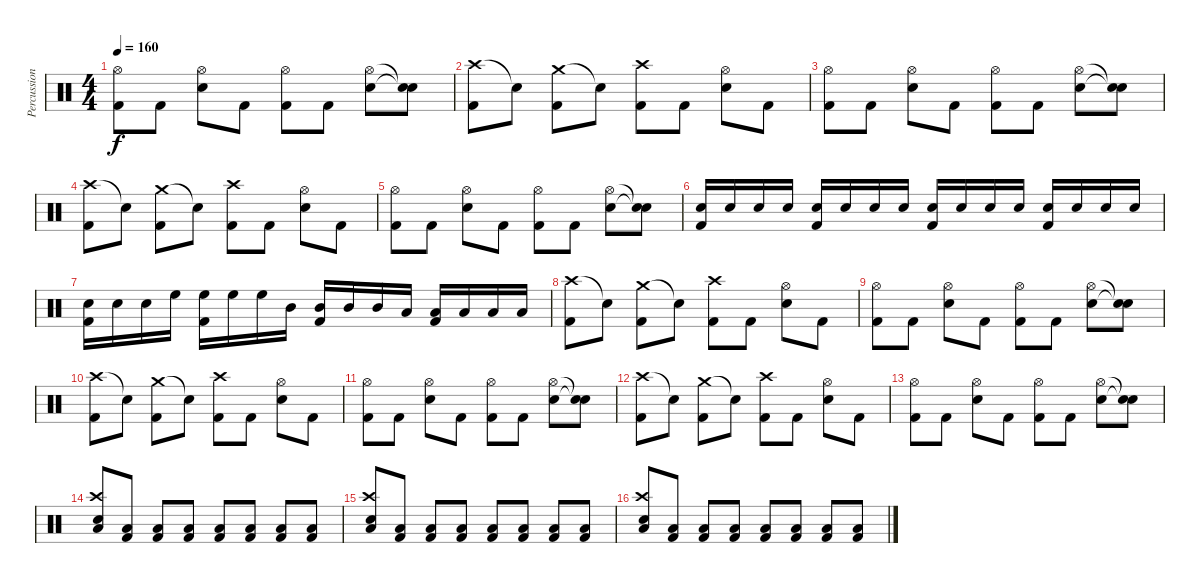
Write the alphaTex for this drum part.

\track ("Percussion" "Percussion") {instrument percussion}
\staff {score}
\articulation defaults
\ts (4 4)
\tempo 160
\clef neutral
\ks c
("Hi-Hat (open)" "Kick (hit) 2").8{dy f} "Kick (hit) 2".8 ("Hi-Hat (open)" "Snare (hit) 2").8 "Kick (hit) 2".8 ("Hi-Hat (open)" "Kick (hit) 2").8 "Kick (hit) 2".8 ("Hi-Hat (open)" "Snare (hit) 2").8 ("Snare (hit)"{t} "Snare (hit)"{t}).8 |
("Crash high (hit)" "Kick (hit) 2").8 "Snare (hit)"{t}.8 ("Crash medium (hit)" "Kick (hit) 2").8 "Snare (hit)"{t}.8 ("Crash high (hit)" "Kick (hit) 2").8 "Kick (hit) 2".8 ("Hi-Hat (open)" "Snare (hit) 2").8 "Kick (hit) 2".8 |
("Hi-Hat (open)" "Kick (hit) 2").8 "Kick (hit) 2".8 ("Hi-Hat (open)" "Snare (hit) 2").8 "Kick (hit) 2".8 ("Hi-Hat (open)" "Kick (hit) 2").8 "Kick (hit) 2".8 ("Hi-Hat (open)" "Snare (hit) 2").8 ("Snare (hit)"{t} "Snare (hit)"{t}).8 |
("Crash high (hit)" "Kick (hit) 2").8 "Snare (hit)"{t}.8 ("Crash medium (hit)" "Kick (hit) 2").8 "Snare (hit)"{t}.8 ("Crash high (hit)" "Kick (hit) 2").8 "Kick (hit) 2".8 ("Hi-Hat (open)" "Snare (hit) 2").8 "Kick (hit) 2".8 |
("Hi-Hat (open)" "Kick (hit) 2").8 "Kick (hit) 2".8 ("Hi-Hat (open)" "Snare (hit) 2").8 "Kick (hit) 2".8 ("Hi-Hat (open)" "Kick (hit) 2").8 "Kick (hit) 2".8 ("Hi-Hat (open)" "Snare (hit) 2").8 ("Snare (hit)"{t} "Snare (hit)"{t}).8 |
("Snare (hit) 2" "Kick (hit) 2").16 "Snare (hit) 2".16 "Snare (hit) 2".16 "Snare (hit) 2".16 ("Snare (hit) 2" "Kick (hit) 2").16 "Snare (hit) 2".16 "Snare (hit) 2".16 "Snare (hit) 2".16 ("Snare (hit) 2" "Kick (hit) 2").16 "Snare (hit) 2".16 "Snare (hit) 2".16 "Snare (hit) 2".16 ("Snare (hit) 2" "Kick (hit) 2").16 "Snare (hit) 2".16 "Snare (hit) 2".16 "Snare (hit) 2".16 |
("Snare (hit) 2" "Kick (hit) 2").16 "Snare (hit) 2".16 "Snare (hit) 2".16 "High Floor Tom (hit)".16 ("High Floor Tom (hit)" "Kick (hit) 2").16 "High Floor Tom (hit)".16 "High Floor Tom (hit)".16 "Mid Tom (hit)".16 ("Mid Tom (hit)" "Kick (hit) 2").16 "Mid Tom (hit)".16 "Mid Tom (hit)".16 "Low Floor Tom (hit)".16 ("Low Floor Tom (hit)" "Kick (hit) 2").16 "Low Floor Tom (hit)".16 "Low Floor Tom (hit)".16 "Low Floor Tom (hit)".16 |
("Crash high (hit)" "Kick (hit) 2").8 "Snare (hit)"{t}.8 ("Crash medium (hit)" "Kick (hit) 2").8 "Snare (hit)"{t}.8 ("Crash high (hit)" "Kick (hit) 2").8 "Kick (hit) 2".8 ("Hi-Hat (open)" "Snare (hit) 2").8 "Kick (hit) 2".8 |
("Hi-Hat (open)" "Kick (hit) 2").8 "Kick (hit) 2".8 ("Hi-Hat (open)" "Snare (hit) 2").8 "Kick (hit) 2".8 ("Hi-Hat (open)" "Kick (hit) 2").8 "Kick (hit) 2".8 ("Hi-Hat (open)" "Snare (hit) 2").8 ("Snare (hit)"{t} "Snare (hit)"{t}).8 |
("Crash high (hit)" "Kick (hit) 2").8 "Snare (hit)"{t}.8 ("Crash medium (hit)" "Kick (hit) 2").8 "Snare (hit)"{t}.8 ("Crash high (hit)" "Kick (hit) 2").8 "Kick (hit) 2".8 ("Hi-Hat (open)" "Snare (hit) 2").8 "Kick (hit) 2".8 |
("Hi-Hat (open)" "Kick (hit) 2").8 "Kick (hit) 2".8 ("Hi-Hat (open)" "Snare (hit) 2").8 "Kick (hit) 2".8 ("Hi-Hat (open)" "Kick (hit) 2").8 "Kick (hit) 2".8 ("Hi-Hat (open)" "Snare (hit) 2").8 ("Snare (hit)"{t} "Snare (hit)"{t}).8 |
("Crash high (hit)" "Kick (hit) 2").8 "Snare (hit)"{t}.8 ("Crash medium (hit)" "Kick (hit) 2").8 "Snare (hit)"{t}.8 ("Crash high (hit)" "Kick (hit) 2").8 "Kick (hit) 2".8 ("Hi-Hat (open)" "Snare (hit) 2").8 "Kick (hit) 2".8 |
("Hi-Hat (open)" "Kick (hit) 2").8 "Kick (hit) 2".8 ("Hi-Hat (open)" "Snare (hit) 2").8 "Kick (hit) 2".8 ("Hi-Hat (open)" "Kick (hit) 2").8 "Kick (hit) 2".8 ("Hi-Hat (open)" "Snare (hit) 2").8 ("Snare (hit)"{t} "Snare (hit)"{t}).8 |
("Crash high (hit)" "Low Floor Tom (hit)" "Snare (hit) 2").8 ("Low Floor Tom (hit)" "Kick (hit) 2").8 ("Low Floor Tom (hit)" "Kick (hit) 2").8 ("Low Floor Tom (hit)" "Kick (hit) 2").8 ("Low Floor Tom (hit)" "Kick (hit) 2").8 ("Low Floor Tom (hit)" "Kick (hit) 2").8 ("Low Floor Tom (hit)" "Kick (hit) 2").8 ("Low Floor Tom (hit)" "Kick (hit) 2").8 |
("Crash high (hit)" "Low Floor Tom (hit)" "Snare (hit) 2").8 ("Low Floor Tom (hit)" "Kick (hit) 2").8 ("Low Floor Tom (hit)" "Kick (hit) 2").8 ("Low Floor Tom (hit)" "Kick (hit) 2").8 ("Low Floor Tom (hit)" "Kick (hit) 2").8 ("Low Floor Tom (hit)" "Kick (hit) 2").8 ("Low Floor Tom (hit)" "Kick (hit) 2").8 ("Low Floor Tom (hit)" "Kick (hit) 2").8 |
("Crash high (hit)" "Low Floor Tom (hit)" "Snare (hit) 2").8 ("Low Floor Tom (hit)" "Kick (hit) 2").8 ("Low Floor Tom (hit)" "Kick (hit) 2").8 ("Low Floor Tom (hit)" "Kick (hit) 2").8 ("Low Floor Tom (hit)" "Kick (hit) 2").8 ("Low Floor Tom (hit)" "Kick (hit) 2").8 ("Low Floor Tom (hit)" "Kick (hit) 2").8 ("Low Floor Tom (hit)" "Kick (hit) 2").8
